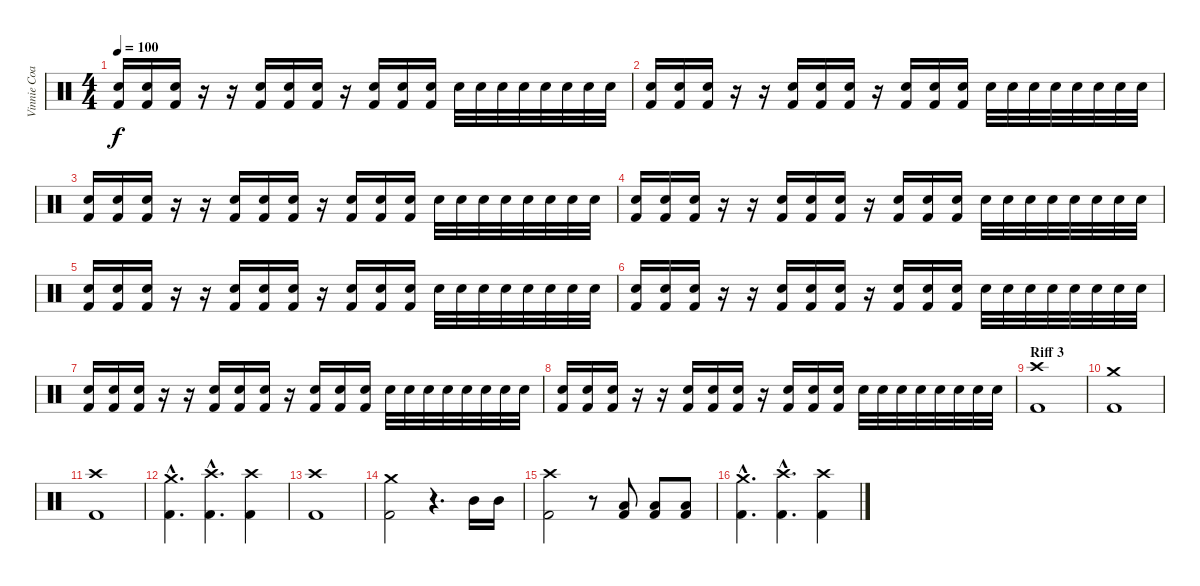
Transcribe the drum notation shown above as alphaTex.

\track ("Vinnie Coaiuta" "Vinnie Coa") {instrument percussion}
\staff {score}
\articulation defaults
\ts (4 4)
\tempo 100
\clef neutral
\ks c
("Snare (hit) 2" "Kick (hit) 2").16{dy f} ("Snare (hit) 2" "Kick (hit) 2").16 ("Snare (hit) 2" "Kick (hit) 2").16 r.16 r.16 ("Snare (hit) 2" "Kick (hit) 2").16 ("Snare (hit) 2" "Kick (hit) 2").16 ("Snare (hit) 2" "Kick (hit) 2").16 r.16 ("Snare (hit) 2" "Kick (hit) 2").16 ("Snare (hit) 2" "Kick (hit) 2").16 ("Snare (hit) 2" "Kick (hit) 2").16 "Snare (hit) 2".32 "Snare (hit) 2".32 "Snare (hit) 2".32 "Snare (hit) 2".32 "Snare (hit) 2".32 "Snare (hit) 2".32 "Snare (hit) 2".32 "Snare (hit) 2".32 |
("Snare (hit) 2" "Kick (hit) 2").16 ("Snare (hit) 2" "Kick (hit) 2").16 ("Snare (hit) 2" "Kick (hit) 2").16 r.16 r.16 ("Snare (hit) 2" "Kick (hit) 2").16 ("Snare (hit) 2" "Kick (hit) 2").16 ("Snare (hit) 2" "Kick (hit) 2").16 r.16 ("Snare (hit) 2" "Kick (hit) 2").16 ("Snare (hit) 2" "Kick (hit) 2").16 ("Snare (hit) 2" "Kick (hit) 2").16 "Snare (hit) 2".32 "Snare (hit) 2".32 "Snare (hit) 2".32 "Snare (hit) 2".32 "Snare (hit) 2".32 "Snare (hit) 2".32 "Snare (hit) 2".32 "Snare (hit) 2".32 |
("Snare (hit) 2" "Kick (hit) 2").16 ("Snare (hit) 2" "Kick (hit) 2").16 ("Snare (hit) 2" "Kick (hit) 2").16 r.16 r.16 ("Snare (hit) 2" "Kick (hit) 2").16 ("Snare (hit) 2" "Kick (hit) 2").16 ("Snare (hit) 2" "Kick (hit) 2").16 r.16 ("Snare (hit) 2" "Kick (hit) 2").16 ("Snare (hit) 2" "Kick (hit) 2").16 ("Snare (hit) 2" "Kick (hit) 2").16 "Snare (hit) 2".32 "Snare (hit) 2".32 "Snare (hit) 2".32 "Snare (hit) 2".32 "Snare (hit) 2".32 "Snare (hit) 2".32 "Snare (hit) 2".32 "Snare (hit) 2".32 |
("Snare (hit) 2" "Kick (hit) 2").16 ("Snare (hit) 2" "Kick (hit) 2").16 ("Snare (hit) 2" "Kick (hit) 2").16 r.16 r.16 ("Snare (hit) 2" "Kick (hit) 2").16 ("Snare (hit) 2" "Kick (hit) 2").16 ("Snare (hit) 2" "Kick (hit) 2").16 r.16 ("Snare (hit) 2" "Kick (hit) 2").16 ("Snare (hit) 2" "Kick (hit) 2").16 ("Snare (hit) 2" "Kick (hit) 2").16 "Snare (hit) 2".32 "Snare (hit) 2".32 "Snare (hit) 2".32 "Snare (hit) 2".32 "Snare (hit) 2".32 "Snare (hit) 2".32 "Snare (hit) 2".32 "Snare (hit) 2".32 |
("Snare (hit) 2" "Kick (hit) 2").16 ("Snare (hit) 2" "Kick (hit) 2").16 ("Snare (hit) 2" "Kick (hit) 2").16 r.16 r.16 ("Snare (hit) 2" "Kick (hit) 2").16 ("Snare (hit) 2" "Kick (hit) 2").16 ("Snare (hit) 2" "Kick (hit) 2").16 r.16 ("Snare (hit) 2" "Kick (hit) 2").16 ("Snare (hit) 2" "Kick (hit) 2").16 ("Snare (hit) 2" "Kick (hit) 2").16 "Snare (hit) 2".32 "Snare (hit) 2".32 "Snare (hit) 2".32 "Snare (hit) 2".32 "Snare (hit) 2".32 "Snare (hit) 2".32 "Snare (hit) 2".32 "Snare (hit) 2".32 |
("Snare (hit) 2" "Kick (hit) 2").16 ("Snare (hit) 2" "Kick (hit) 2").16 ("Snare (hit) 2" "Kick (hit) 2").16 r.16 r.16 ("Snare (hit) 2" "Kick (hit) 2").16 ("Snare (hit) 2" "Kick (hit) 2").16 ("Snare (hit) 2" "Kick (hit) 2").16 r.16 ("Snare (hit) 2" "Kick (hit) 2").16 ("Snare (hit) 2" "Kick (hit) 2").16 ("Snare (hit) 2" "Kick (hit) 2").16 "Snare (hit) 2".32 "Snare (hit) 2".32 "Snare (hit) 2".32 "Snare (hit) 2".32 "Snare (hit) 2".32 "Snare (hit) 2".32 "Snare (hit) 2".32 "Snare (hit) 2".32 |
("Snare (hit) 2" "Kick (hit) 2").16 ("Snare (hit) 2" "Kick (hit) 2").16 ("Snare (hit) 2" "Kick (hit) 2").16 r.16 r.16 ("Snare (hit) 2" "Kick (hit) 2").16 ("Snare (hit) 2" "Kick (hit) 2").16 ("Snare (hit) 2" "Kick (hit) 2").16 r.16 ("Snare (hit) 2" "Kick (hit) 2").16 ("Snare (hit) 2" "Kick (hit) 2").16 ("Snare (hit) 2" "Kick (hit) 2").16 "Snare (hit) 2".32 "Snare (hit) 2".32 "Snare (hit) 2".32 "Snare (hit) 2".32 "Snare (hit) 2".32 "Snare (hit) 2".32 "Snare (hit) 2".32 "Snare (hit) 2".32 |
("Snare (hit) 2" "Kick (hit) 2").16 ("Snare (hit) 2" "Kick (hit) 2").16 ("Snare (hit) 2" "Kick (hit) 2").16 r.16 r.16 ("Snare (hit) 2" "Kick (hit) 2").16 ("Snare (hit) 2" "Kick (hit) 2").16 ("Snare (hit) 2" "Kick (hit) 2").16 r.16 ("Snare (hit) 2" "Kick (hit) 2").16 ("Snare (hit) 2" "Kick (hit) 2").16 ("Snare (hit) 2" "Kick (hit) 2").16 "Snare (hit) 2".32 "Snare (hit) 2".32 "Snare (hit) 2".32 "Snare (hit) 2".32 "Snare (hit) 2".32 "Snare (hit) 2".32 "Snare (hit) 2".32 "Snare (hit) 2".32 |
\section ("" "Riff 3")
("Crash high (hit)" "Kick (hit) 2").1 |
("Crash medium (hit)" "Kick (hit) 2").1 |
("Crash high (hit)" "Kick (hit) 2").1 |
("Crash medium (hit)"{hac} "Kick (hit) 2"{hac}).4{d} ("Crash high (hit)"{hac} "Kick (hit) 2"{hac}).4{d} ("Crash high (hit)" "Kick (hit) 2").4 |
("Crash high (hit)" "Kick (hit) 2").1 |
("Crash medium (hit)" "Kick (hit) 2").2 r.4{d} "Mid Tom (hit)".16 "Mid Tom (hit)".16 |
("Crash high (hit)" "Kick (hit) 2").2 r.8 ("Low Tom (hit)" "Kick (hit) 2").8 ("Low Tom (hit)" "Kick (hit) 2").8 ("Low Tom (hit)" "Kick (hit) 2").8 |
("Crash medium (hit)"{hac} "Kick (hit) 2"{hac}).4{d} ("Crash high (hit)"{hac} "Kick (hit) 2"{hac}).4{d} ("Crash high (hit)" "Kick (hit) 2").4
